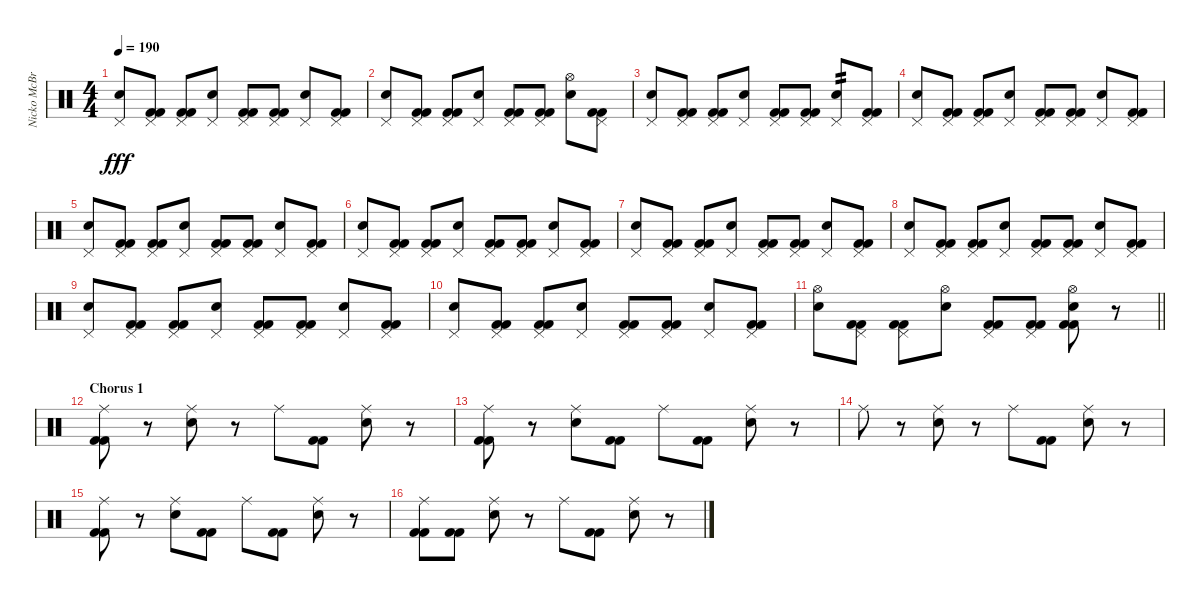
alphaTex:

\track ("Nicko McBrain" "Nicko McBr") {instrument percussion}
\staff {score}
\articulation defaults
\ts (4 4)
\tempo 190
\clef neutral
\ks c
("Snare (hit) 2" "Pedal Hi-Hat (hit)").8{dy fff} ("Pedal Hi-Hat (hit)" "Kick (hit) 2" "Kick (hit) 2").8 ("Pedal Hi-Hat (hit)" "Kick (hit) 2" "Kick (hit) 2").8 ("Snare (hit) 2" "Pedal Hi-Hat (hit)").8 ("Pedal Hi-Hat (hit)" "Kick (hit) 2" "Kick (hit) 2").8 ("Pedal Hi-Hat (hit)" "Kick (hit) 2" "Kick (hit) 2").8 ("Snare (hit) 2" "Pedal Hi-Hat (hit)").8 ("Pedal Hi-Hat (hit)" "Kick (hit) 2" "Kick (hit) 2").8 |
("Snare (hit) 2" "Pedal Hi-Hat (hit)").8 ("Pedal Hi-Hat (hit)" "Kick (hit) 2" "Kick (hit) 2").8 ("Pedal Hi-Hat (hit)" "Kick (hit) 2" "Kick (hit) 2").8 ("Snare (hit) 2" "Pedal Hi-Hat (hit)").8 ("Pedal Hi-Hat (hit)" "Kick (hit) 2" "Kick (hit) 2").8 ("Pedal Hi-Hat (hit)" "Kick (hit) 2" "Kick (hit) 2").8 ("Snare (hit) 2" "Hi-Hat (open)").8 ("Pedal Hi-Hat (hit)" "Kick (hit) 2" "Kick (hit) 2").8 |
("Snare (hit) 2" "Pedal Hi-Hat (hit)").8 ("Pedal Hi-Hat (hit)" "Kick (hit) 2" "Kick (hit) 2").8 ("Pedal Hi-Hat (hit)" "Kick (hit) 2" "Kick (hit) 2").8 ("Snare (hit) 2" "Pedal Hi-Hat (hit)").8 ("Pedal Hi-Hat (hit)" "Kick (hit) 2" "Kick (hit) 2").8 ("Pedal Hi-Hat (hit)" "Kick (hit) 2" "Kick (hit) 2").8 ("Snare (hit) 2" "Pedal Hi-Hat (hit)").8{tp 2} ("Pedal Hi-Hat (hit)" "Kick (hit) 2" "Kick (hit) 2").8 |
("Snare (hit) 2" "Pedal Hi-Hat (hit)").8 ("Pedal Hi-Hat (hit)" "Kick (hit) 2" "Kick (hit) 2").8 ("Pedal Hi-Hat (hit)" "Kick (hit) 2" "Kick (hit) 2").8 ("Snare (hit) 2" "Pedal Hi-Hat (hit)").8 ("Pedal Hi-Hat (hit)" "Kick (hit) 2" "Kick (hit) 2").8 ("Pedal Hi-Hat (hit)" "Kick (hit) 2" "Kick (hit) 2").8 ("Snare (hit) 2" "Pedal Hi-Hat (hit)").8 ("Pedal Hi-Hat (hit)" "Kick (hit) 2" "Kick (hit) 2").8 |
("Snare (hit) 2" "Pedal Hi-Hat (hit)").8 ("Pedal Hi-Hat (hit)" "Kick (hit) 2" "Kick (hit) 2").8 ("Pedal Hi-Hat (hit)" "Kick (hit) 2" "Kick (hit) 2").8 ("Snare (hit) 2" "Pedal Hi-Hat (hit)").8 ("Pedal Hi-Hat (hit)" "Kick (hit) 2" "Kick (hit) 2").8 ("Pedal Hi-Hat (hit)" "Kick (hit) 2" "Kick (hit) 2").8 ("Snare (hit) 2" "Pedal Hi-Hat (hit)").8 ("Pedal Hi-Hat (hit)" "Kick (hit) 2" "Kick (hit) 2").8 |
("Snare (hit) 2" "Pedal Hi-Hat (hit)").8 ("Pedal Hi-Hat (hit)" "Kick (hit) 2" "Kick (hit) 2").8 ("Pedal Hi-Hat (hit)" "Kick (hit) 2" "Kick (hit) 2").8 ("Snare (hit) 2" "Pedal Hi-Hat (hit)").8 ("Pedal Hi-Hat (hit)" "Kick (hit) 2" "Kick (hit) 2").8 ("Pedal Hi-Hat (hit)" "Kick (hit) 2" "Kick (hit) 2").8 ("Snare (hit) 2" "Pedal Hi-Hat (hit)").8 ("Pedal Hi-Hat (hit)" "Kick (hit) 2" "Kick (hit) 2").8 |
("Snare (hit) 2" "Pedal Hi-Hat (hit)").8 ("Pedal Hi-Hat (hit)" "Kick (hit) 2" "Kick (hit) 2").8 ("Pedal Hi-Hat (hit)" "Kick (hit) 2" "Kick (hit) 2").8 ("Snare (hit) 2" "Pedal Hi-Hat (hit)").8 ("Pedal Hi-Hat (hit)" "Kick (hit) 2" "Kick (hit) 2").8 ("Pedal Hi-Hat (hit)" "Kick (hit) 2" "Kick (hit) 2").8 ("Snare (hit) 2" "Pedal Hi-Hat (hit)").8 ("Pedal Hi-Hat (hit)" "Kick (hit) 2" "Kick (hit) 2").8 |
("Snare (hit) 2" "Pedal Hi-Hat (hit)").8 ("Pedal Hi-Hat (hit)" "Kick (hit) 2" "Kick (hit) 2").8 ("Pedal Hi-Hat (hit)" "Kick (hit) 2" "Kick (hit) 2").8 ("Snare (hit) 2" "Pedal Hi-Hat (hit)").8 ("Pedal Hi-Hat (hit)" "Kick (hit) 2" "Kick (hit) 2").8 ("Pedal Hi-Hat (hit)" "Kick (hit) 2" "Kick (hit) 2").8 ("Snare (hit) 2" "Pedal Hi-Hat (hit)").8 ("Pedal Hi-Hat (hit)" "Kick (hit) 2" "Kick (hit) 2").8 |
("Snare (hit) 2" "Pedal Hi-Hat (hit)").8 ("Pedal Hi-Hat (hit)" "Kick (hit) 2" "Kick (hit) 2").8 ("Pedal Hi-Hat (hit)" "Kick (hit) 2" "Kick (hit) 2").8 ("Snare (hit) 2" "Pedal Hi-Hat (hit)").8 ("Pedal Hi-Hat (hit)" "Kick (hit) 2" "Kick (hit) 2").8 ("Pedal Hi-Hat (hit)" "Kick (hit) 2" "Kick (hit) 2").8 ("Snare (hit) 2" "Pedal Hi-Hat (hit)").8 ("Pedal Hi-Hat (hit)" "Kick (hit) 2" "Kick (hit) 2").8 |
("Snare (hit) 2" "Pedal Hi-Hat (hit)").8 ("Pedal Hi-Hat (hit)" "Kick (hit) 2" "Kick (hit) 2").8 ("Pedal Hi-Hat (hit)" "Kick (hit) 2" "Kick (hit) 2").8 ("Snare (hit) 2" "Pedal Hi-Hat (hit)").8 ("Pedal Hi-Hat (hit)" "Kick (hit) 2" "Kick (hit) 2").8 ("Pedal Hi-Hat (hit)" "Kick (hit) 2" "Kick (hit) 2").8 ("Snare (hit) 2" "Pedal Hi-Hat (hit)").8 ("Pedal Hi-Hat (hit)" "Kick (hit) 2" "Kick (hit) 2").8 |
\barLineRight lightlight
("Snare (hit) 2" "Hi-Hat (open)").8 ("Pedal Hi-Hat (hit)" "Kick (hit) 2" "Kick (hit) 2").8 ("Pedal Hi-Hat (hit)" "Kick (hit) 2" "Kick (hit) 2").8 ("Snare (hit) 2" "Hi-Hat (open)").8 ("Pedal Hi-Hat (hit)" "Kick (hit) 2" "Kick (hit) 2").8 ("Pedal Hi-Hat (hit)" "Kick (hit) 2" "Kick (hit) 2").8 ("Snare (hit) 2" "Hi-Hat (open)" "Kick (hit) 2" "Kick (hit) 2").8 r.8 |
\section ("" "Chorus 1")
("Ride (middle)" "Kick (hit) 2" "Kick (hit) 2").8 r.8 ("Snare (hit) 2" "Ride (middle)").8 r.8 "Ride (middle)".8 ("Kick (hit) 2" "Kick (hit) 2").8 ("Snare (hit) 2" "Ride (middle)").8 r.8 |
("Ride (middle)" "Kick (hit) 2" "Kick (hit) 2").8 r.8 ("Snare (hit) 2" "Ride (middle)").8 ("Kick (hit) 2" "Kick (hit) 2").8 "Ride (middle)".8 ("Kick (hit) 2" "Kick (hit) 2").8 ("Snare (hit) 2" "Ride (middle)").8 r.8 |
"Ride (middle)".8 r.8 ("Snare (hit) 2" "Ride (middle)").8 r.8 "Ride (middle)".8 ("Kick (hit) 2" "Kick (hit) 2").8 ("Snare (hit) 2" "Ride (middle)").8 r.8 |
("Ride (middle)" "Kick (hit) 2" "Kick (hit) 2").8 r.8 ("Snare (hit) 2" "Ride (middle)").8 ("Kick (hit) 2" "Kick (hit) 2").8 "Ride (middle)".8 ("Kick (hit) 2" "Kick (hit) 2").8 ("Snare (hit) 2" "Ride (middle)").8 r.8 |
("Ride (middle)" "Kick (hit) 2" "Kick (hit) 2").8 ("Kick (hit) 2" "Kick (hit) 2").8 ("Snare (hit) 2" "Ride (middle)").8 r.8 "Ride (middle)".8 ("Kick (hit) 2" "Kick (hit) 2").8 ("Snare (hit) 2" "Ride (middle)").8 r.8
